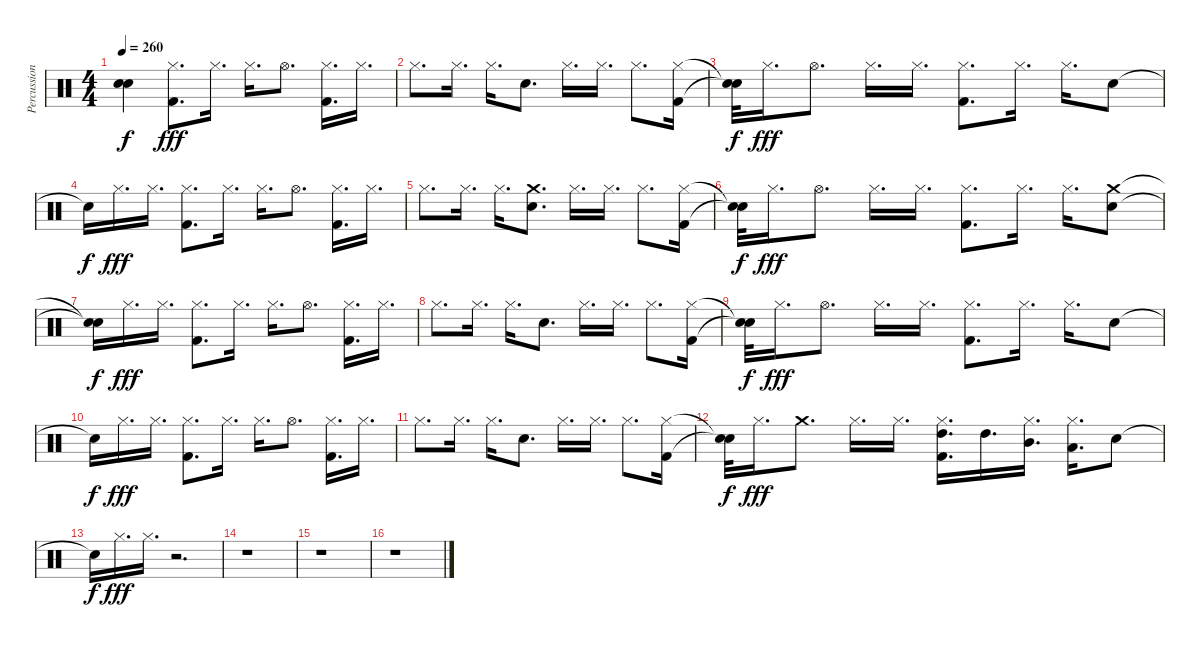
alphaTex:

\track ("Percussion" "Percussion") {instrument percussion}
\staff {score}
\articulation defaults
\ts (4 4)
\tempo 260
\clef neutral
\ks c
("Snare (hit)"{t} "Snare (hit)"{t}).4{dy f} ("Kick (hit) 2" "Hi-Hat (closed)").8{d dy fff} "Hi-Hat (closed)".16{d} "Hi-Hat (closed)".16{d} "Hi-Hat (open)".8{d} ("Kick (hit) 2" "Hi-Hat (closed)").16{d} "Hi-Hat (closed)".16{d} |
"Hi-Hat (closed)".8{d} "Hi-Hat (closed)".16{d} "Hi-Hat (closed)".16{d} "Electric Snare (hit)".8{d} "Hi-Hat (closed)".16{d} "Hi-Hat (closed)".16{d} "Hi-Hat (closed)".8{d} ("Kick (hit) 2" "Hi-Hat (closed)").16 |
("Snare (hit)"{t} "Snare (hit)"{t}).32{dy f} "Hi-Hat (closed)".16{d dy fff} "Hi-Hat (open)".8{d} "Hi-Hat (closed)".16{d} "Hi-Hat (closed)".16{d} ("Kick (hit) 2" "Hi-Hat (closed)").8{d} "Hi-Hat (closed)".16{d} "Hi-Hat (closed)".16{d} "Electric Snare (hit)".8 |
"Snare (hit)"{t}.16{dy f} "Hi-Hat (closed)".16{d dy fff} "Hi-Hat (closed)".16{d} ("Kick (hit) 2" "Hi-Hat (closed)").8{d} "Hi-Hat (closed)".16{d} "Hi-Hat (closed)".16{d} "Hi-Hat (open)".8{d} ("Kick (hit) 2" "Hi-Hat (closed)").16{d} "Hi-Hat (closed)".16{d} |
"Hi-Hat (closed)".8{d} "Hi-Hat (closed)".16{d} "Hi-Hat (closed)".16{d} ("Electric Snare (hit)" "Crash medium (hit)").8{d} "Hi-Hat (closed)".16{d} "Hi-Hat (closed)".16{d} "Hi-Hat (closed)".8{d} ("Kick (hit) 2" "Hi-Hat (closed)").16 |
("Snare (hit)"{t} "Snare (hit)"{t}).32{dy f} "Hi-Hat (closed)".16{d dy fff} "Hi-Hat (open)".8{d} "Hi-Hat (closed)".16{d} "Hi-Hat (closed)".16{d} ("Kick (hit) 2" "Hi-Hat (closed)").8{d} "Hi-Hat (closed)".16{d} "Hi-Hat (closed)".16{d} ("Electric Snare (hit)" "Crash medium (hit)").8 |
("Snare (hit)"{t} "Snare (hit)"{t}).16{dy f} "Hi-Hat (closed)".16{d dy fff} "Hi-Hat (closed)".16{d} ("Kick (hit) 2" "Hi-Hat (closed)").8{d} "Hi-Hat (closed)".16{d} "Hi-Hat (closed)".16{d} "Hi-Hat (open)".8{d} ("Kick (hit) 2" "Hi-Hat (closed)").16{d} "Hi-Hat (closed)".16{d} |
"Hi-Hat (closed)".8{d} "Hi-Hat (closed)".16{d} "Hi-Hat (closed)".16{d} "Electric Snare (hit)".8{d} "Hi-Hat (closed)".16{d} "Hi-Hat (closed)".16{d} "Hi-Hat (closed)".8{d} ("Kick (hit) 2" "Hi-Hat (closed)").16 |
("Snare (hit)"{t} "Snare (hit)"{t}).32{dy f} "Hi-Hat (closed)".16{d dy fff} "Hi-Hat (open)".8{d} "Hi-Hat (closed)".16{d} "Hi-Hat (closed)".16{d} ("Kick (hit) 2" "Hi-Hat (closed)").8{d} "Hi-Hat (closed)".16{d} "Hi-Hat (closed)".16{d} "Electric Snare (hit)".8 |
"Snare (hit)"{t}.16{dy f} "Hi-Hat (closed)".16{d dy fff} "Hi-Hat (closed)".16{d} ("Kick (hit) 2" "Hi-Hat (closed)").8{d} "Hi-Hat (closed)".16{d} "Hi-Hat (closed)".16{d} "Hi-Hat (open)".8{d} ("Kick (hit) 2" "Hi-Hat (closed)").16{d} "Hi-Hat (closed)".16{d} |
"Hi-Hat (closed)".8{d} "Hi-Hat (closed)".16{d} "Hi-Hat (closed)".16{d} "Electric Snare (hit)".8{d} "Hi-Hat (closed)".16{d} "Hi-Hat (closed)".16{d} "Hi-Hat (closed)".8{d} ("Kick (hit) 2" "Hi-Hat (closed)").16 |
("Snare (hit)"{t} "Snare (hit)"{t}).32{dy f} "Hi-Hat (closed)".16{d dy fff} "Crash medium (hit)".8{d} "Hi-Hat (closed)".16{d} "Hi-Hat (closed)".16{d} ("Kick (hit) 2" "Hi-Hat (closed)" "High Tom (hit)").16{d} "High Tom (hit)".16{d} ("Hi-Hat (closed)" "Mid Tom (hit)").16{d} ("Hi-Hat (closed)" "Low Tom (hit)").16{d} "Electric Snare (hit)".8 |
"Snare (hit)"{t}.16{dy f} "Hi-Hat (closed)".16{d dy fff} "Hi-Hat (closed)".16{d} r.2{d} |
r.1 |
r.1 |
r.1
